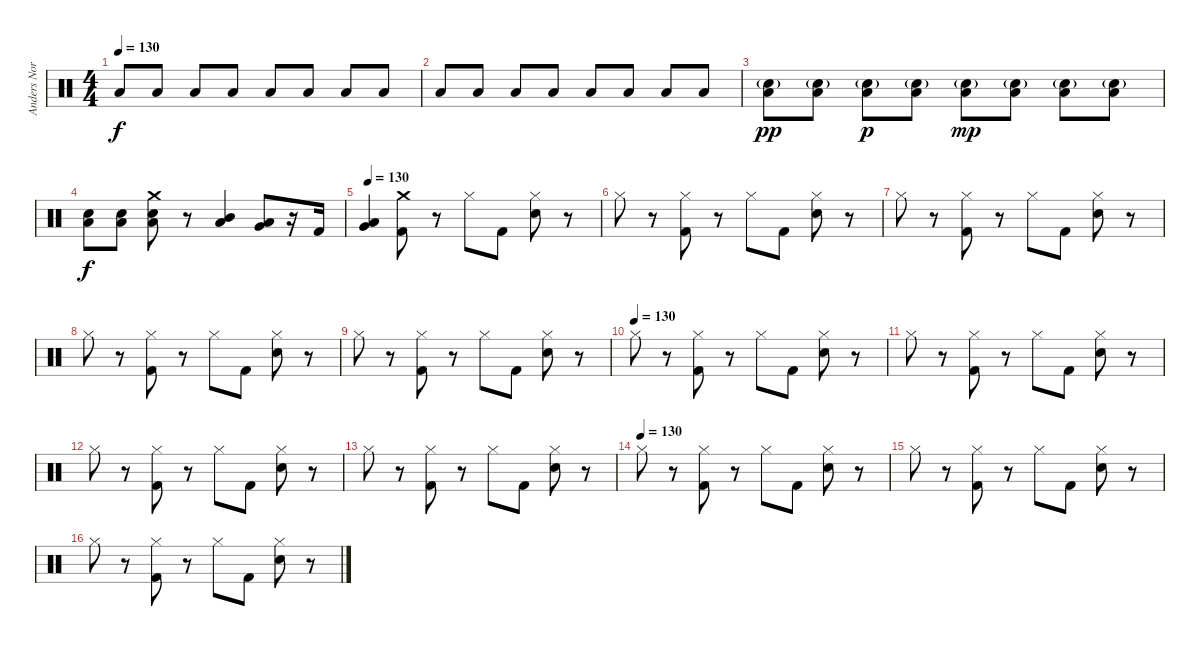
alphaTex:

\track ("Anders Nordin" "Anders Nor") {instrument percussion}
\staff {score}
\articulation defaults
\ts (4 4)
\tempo 130
\clef neutral
\ks c "Low Tom (hit)".8{dy f} "Low Tom (hit)".8 "Low Tom (hit)".8 "Low Tom (hit)".8 "Low Tom (hit)".8 "Low Tom (hit)".8 "Low Tom (hit)".8 "Low Tom (hit)".8
|
"Low Tom (hit)".8{volume 15} "Low Tom (hit)".8 "Low Tom (hit)".8 "Low Tom (hit)".8 "Low Tom (hit)".8 "Low Tom (hit)".8 "Low Tom (hit)".8 "Low Tom (hit)".8 |
("Low Tom (hit)" "Snare (hit) 2"{g}).8{dy pp} ("Low Tom (hit)" "Snare (hit) 2"{g}).8 ("Low Tom (hit)" "Snare (hit) 2"{g}).8{dy p} ("Low Tom (hit)" "Snare (hit) 2"{g}).8 ("Low Tom (hit)" "Snare (hit) 2"{g}).8{dy mp} ("Low Tom (hit)" "Snare (hit) 2"{g}).8 ("Low Tom (hit)" "Snare (hit) 2"{g}).8 ("Low Tom (hit)" "Snare (hit) 2"{g}).8 |
("Low Tom (hit)" "Snare (hit) 2").8{dy f} ("Low Tom (hit)" "Snare (hit) 2").8 ("Low Tom (hit)" "Snare (hit) 2" "Crash medium (hit)").8 r.8 ("Mid Tom (hit)" "Low Tom (hit)").4 ("Low Tom (hit)" "Very Low Tom (hit)").8 r.16 "Kick (hit) 2".16 |
\tempo 130
("Very Low Tom (hit)" "Low Floor Tom (hit)").4 ("Crash medium (hit)" "Kick (hit) 2").8 r.8 "Hi-Hat (closed)".8 "Kick (hit) 2".8 ("Hi-Hat (closed)" "Snare (hit) 2").8 r.8 |
"Hi-Hat (closed)".8 r.8 ("Hi-Hat (closed)" "Kick (hit) 2").8 r.8 "Hi-Hat (closed)".8 "Kick (hit) 2".8 ("Hi-Hat (closed)" "Snare (hit) 2").8 r.8 |
"Hi-Hat (closed)".8 r.8 ("Hi-Hat (closed)" "Kick (hit) 2").8 r.8 "Hi-Hat (closed)".8 "Kick (hit) 2".8 ("Hi-Hat (closed)" "Snare (hit) 2").8 r.8 |
"Hi-Hat (closed)".8 r.8 ("Hi-Hat (closed)" "Kick (hit) 2").8 r.8 "Hi-Hat (closed)".8 "Kick (hit) 2".8 ("Hi-Hat (closed)" "Snare (hit) 2").8 r.8 |
"Hi-Hat (closed)".8 r.8 ("Hi-Hat (closed)" "Kick (hit) 2").8 r.8 "Hi-Hat (closed)".8 "Kick (hit) 2".8 ("Hi-Hat (closed)" "Snare (hit) 2").8 r.8 |
\tempo (130)
"Hi-Hat (closed)".8 r.8 ("Hi-Hat (closed)" "Kick (hit) 2").8 r.8 "Hi-Hat (closed)".8 "Kick (hit) 2".8 ("Hi-Hat (closed)" "Snare (hit) 2").8 r.8 |
"Hi-Hat (closed)".8 r.8 ("Hi-Hat (closed)" "Kick (hit) 2").8 r.8 "Hi-Hat (closed)".8 "Kick (hit) 2".8 ("Hi-Hat (closed)" "Snare (hit) 2").8 r.8 |
"Hi-Hat (closed)".8 r.8 ("Hi-Hat (closed)" "Kick (hit) 2").8 r.8 "Hi-Hat (closed)".8 "Kick (hit) 2".8 ("Hi-Hat (closed)" "Snare (hit) 2").8 r.8 |
"Hi-Hat (closed)".8 r.8 ("Hi-Hat (closed)" "Kick (hit) 2").8 r.8 "Hi-Hat (closed)".8 "Kick (hit) 2".8 ("Hi-Hat (closed)" "Snare (hit) 2").8 r.8 |
\tempo (130)
"Hi-Hat (closed)".8 r.8 ("Hi-Hat (closed)" "Kick (hit) 2").8 r.8 "Hi-Hat (closed)".8 "Kick (hit) 2".8 ("Hi-Hat (closed)" "Snare (hit) 2").8 r.8 |
"Hi-Hat (closed)".8 r.8 ("Hi-Hat (closed)" "Kick (hit) 2").8 r.8 "Hi-Hat (closed)".8 "Kick (hit) 2".8 ("Hi-Hat (closed)" "Snare (hit) 2").8 r.8 |
"Hi-Hat (closed)".8 r.8 ("Hi-Hat (closed)" "Kick (hit) 2").8 r.8 "Hi-Hat (closed)".8 "Kick (hit) 2".8 ("Hi-Hat (closed)" "Snare (hit) 2").8 r.8
